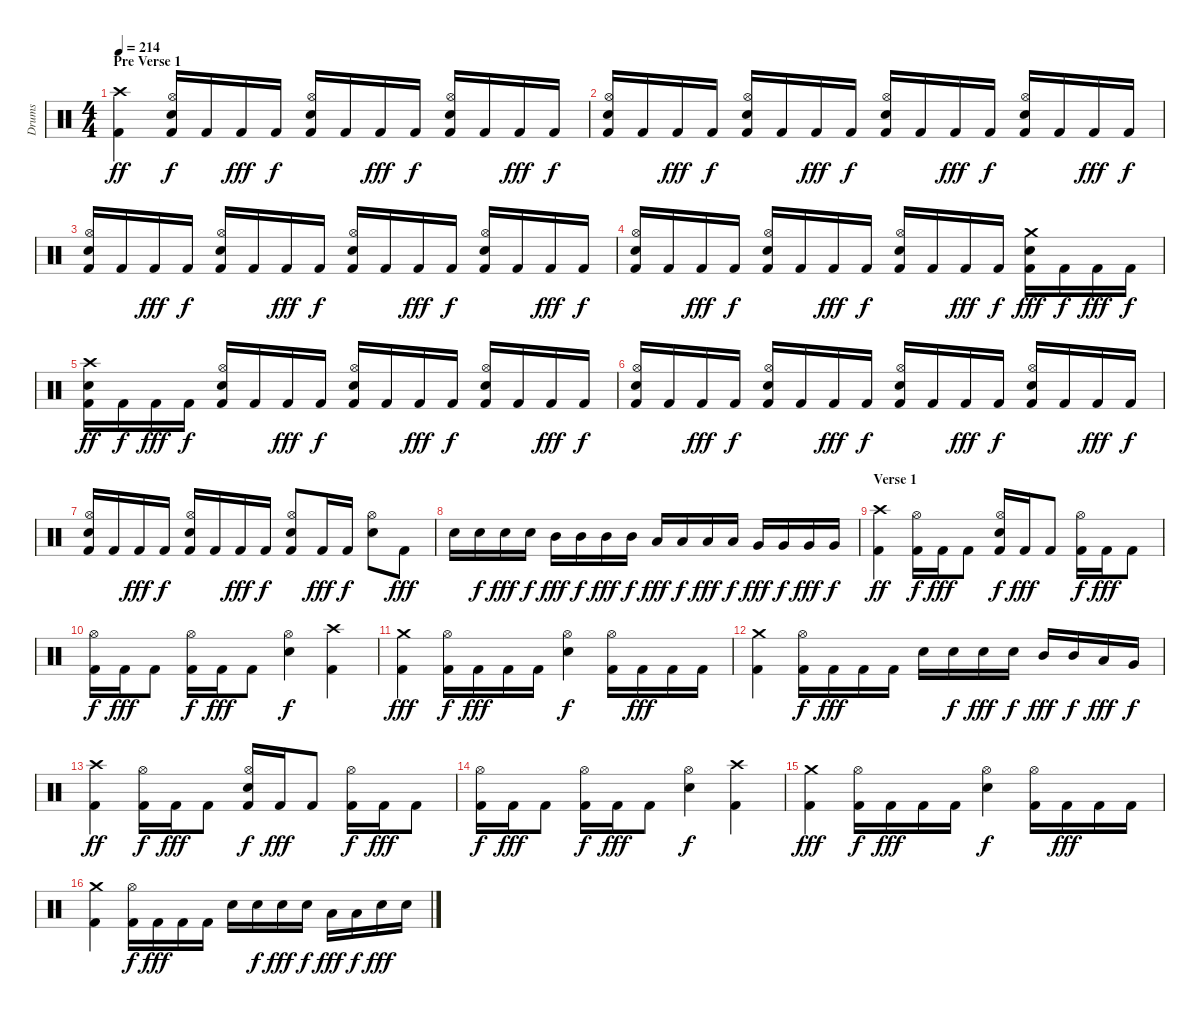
\track ("Drums" "Drums") {instrument percussion}
\staff {score}
\articulation defaults
\ts (4 4)
\section ("" "Pre Verse 1")
\tempo 214
\clef neutral
\ks c
("Crash high (hit)" "Kick (hit) 2").4{dy ff} ("Hi-Hat (open)" "Snare (hit) 2" "Kick (hit) 2").16{dy f} "Kick (hit) 2".16 "Kick (hit) 2".16{dy fff} "Kick (hit) 2".16{dy f} ("Hi-Hat (open)" "Snare (hit) 2" "Kick (hit) 2").16 "Kick (hit) 2".16 "Kick (hit) 2".16{dy fff} "Kick (hit) 2".16{dy f} ("Hi-Hat (open)" "Snare (hit) 2" "Kick (hit) 2").16 "Kick (hit) 2".16 "Kick (hit) 2".16{dy fff} "Kick (hit) 2".16{dy f} |
("Hi-Hat (open)" "Snare (hit) 2" "Kick (hit) 2").16 "Kick (hit) 2".16 "Kick (hit) 2".16{dy fff} "Kick (hit) 2".16{dy f} ("Hi-Hat (open)" "Snare (hit) 2" "Kick (hit) 2").16 "Kick (hit) 2".16 "Kick (hit) 2".16{dy fff} "Kick (hit) 2".16{dy f} ("Hi-Hat (open)" "Snare (hit) 2" "Kick (hit) 2").16 "Kick (hit) 2".16 "Kick (hit) 2".16{dy fff} "Kick (hit) 2".16{dy f} ("Hi-Hat (open)" "Snare (hit) 2" "Kick (hit) 2").16 "Kick (hit) 2".16 "Kick (hit) 2".16{dy fff} "Kick (hit) 2".16{dy f} |
("Hi-Hat (open)" "Snare (hit) 2" "Kick (hit) 2").16 "Kick (hit) 2".16 "Kick (hit) 2".16{dy fff} "Kick (hit) 2".16{dy f} ("Hi-Hat (open)" "Snare (hit) 2" "Kick (hit) 2").16 "Kick (hit) 2".16 "Kick (hit) 2".16{dy fff} "Kick (hit) 2".16{dy f} ("Hi-Hat (open)" "Snare (hit) 2" "Kick (hit) 2").16 "Kick (hit) 2".16 "Kick (hit) 2".16{dy fff} "Kick (hit) 2".16{dy f} ("Hi-Hat (open)" "Snare (hit) 2" "Kick (hit) 2").16 "Kick (hit) 2".16 "Kick (hit) 2".16{dy fff} "Kick (hit) 2".16{dy f} |
("Hi-Hat (open)" "Snare (hit) 2" "Kick (hit) 2").16 "Kick (hit) 2".16 "Kick (hit) 2".16{dy fff} "Kick (hit) 2".16{dy f} ("Hi-Hat (open)" "Snare (hit) 2" "Kick (hit) 2").16 "Kick (hit) 2".16 "Kick (hit) 2".16{dy fff} "Kick (hit) 2".16{dy f} ("Hi-Hat (open)" "Snare (hit) 2" "Kick (hit) 2").16 "Kick (hit) 2".16 "Kick (hit) 2".16{dy fff} "Kick (hit) 2".16{dy f} ("Crash medium (hit)" "Snare (hit) 2" "Kick (hit) 2").16{dy fff} "Kick (hit) 2".16{dy f} "Kick (hit) 2".16{dy fff} "Kick (hit) 2".16{dy f} |
("Crash high (hit)" "Snare (hit) 2" "Kick (hit) 2").16{dy ff} "Kick (hit) 2".16{dy f} "Kick (hit) 2".16{dy fff} "Kick (hit) 2".16{dy f} ("Hi-Hat (open)" "Snare (hit) 2" "Kick (hit) 2").16 "Kick (hit) 2".16 "Kick (hit) 2".16{dy fff} "Kick (hit) 2".16{dy f} ("Hi-Hat (open)" "Snare (hit) 2" "Kick (hit) 2").16 "Kick (hit) 2".16 "Kick (hit) 2".16{dy fff} "Kick (hit) 2".16{dy f} ("Hi-Hat (open)" "Snare (hit) 2" "Kick (hit) 2").16 "Kick (hit) 2".16 "Kick (hit) 2".16{dy fff} "Kick (hit) 2".16{dy f} |
("Hi-Hat (open)" "Snare (hit) 2" "Kick (hit) 2").16 "Kick (hit) 2".16 "Kick (hit) 2".16{dy fff} "Kick (hit) 2".16{dy f} ("Hi-Hat (open)" "Snare (hit) 2" "Kick (hit) 2").16 "Kick (hit) 2".16 "Kick (hit) 2".16{dy fff} "Kick (hit) 2".16{dy f} ("Hi-Hat (open)" "Snare (hit) 2" "Kick (hit) 2").16 "Kick (hit) 2".16 "Kick (hit) 2".16{dy fff} "Kick (hit) 2".16{dy f} ("Hi-Hat (open)" "Snare (hit) 2" "Kick (hit) 2").16 "Kick (hit) 2".16 "Kick (hit) 2".16{dy fff} "Kick (hit) 2".16{dy f} |
("Hi-Hat (open)" "Snare (hit) 2" "Kick (hit) 2").16 "Kick (hit) 2".16 "Kick (hit) 2".16{dy fff} "Kick (hit) 2".16{dy f} ("Hi-Hat (open)" "Snare (hit) 2" "Kick (hit) 2").16 "Kick (hit) 2".16 "Kick (hit) 2".16{dy fff} "Kick (hit) 2".16{dy f} ("Hi-Hat (open)" "Snare (hit) 2" "Kick (hit) 2").8 "Kick (hit) 2".16{dy fff} "Kick (hit) 2".16{dy f} ("Hi-Hat (open)" "Snare (hit) 2").8 "Kick (hit) 2".8{dy fff} |
"Snare (hit) 2".16 "Snare (hit) 2".16{dy f} "Snare (hit) 2".16{dy fff} "Snare (hit) 2".16{dy f} "Mid Tom (hit)".16{dy fff} "Mid Tom (hit)".16{dy f} "Mid Tom (hit)".16{dy fff} "Mid Tom (hit)".16{dy f} "Low Tom (hit)".16{dy fff} "Low Tom (hit)".16{dy f} "Low Tom (hit)".16{dy fff} "Low Tom (hit)".16{dy f} "Very Low Tom (hit)".16{dy fff} "Very Low Tom (hit)".16{dy f} "Very Low Tom (hit)".16{dy fff} "Very Low Tom (hit)".16{dy f} |
\section ("" "Verse 1")
("Crash high (hit)" "Kick (hit) 2").4{dy ff} ("Hi-Hat (open)" "Kick (hit) 2").16{dy f} "Kick (hit) 2".16{dy fff} "Kick (hit) 2".8 ("Hi-Hat (open)" "Snare (hit) 2" "Kick (hit) 2").16{dy f} "Kick (hit) 2".16{dy fff} "Kick (hit) 2".8 ("Hi-Hat (open)" "Kick (hit) 2").16{dy f} "Kick (hit) 2".16{dy fff} "Kick (hit) 2".8 |
("Hi-Hat (open)" "Kick (hit) 2").16{dy f} "Kick (hit) 2".16{dy fff} "Kick (hit) 2".8 ("Hi-Hat (open)" "Kick (hit) 2").16{dy f} "Kick (hit) 2".16{dy fff} "Kick (hit) 2".8 ("Hi-Hat (open)" "Snare (hit) 2").4{dy f} ("Crash high (hit)" "Kick (hit) 2").4 |
("Crash medium (hit)" "Kick (hit) 2").4{dy fff} ("Hi-Hat (open)" "Kick (hit) 2").16{dy f} "Kick (hit) 2".16{dy fff} "Kick (hit) 2".16 "Kick (hit) 2".16 ("Hi-Hat (open)" "Snare (hit) 2").4{dy f} ("Hi-Hat (open)" "Kick (hit) 2").16 "Kick (hit) 2".16{dy fff} "Kick (hit) 2".16 "Kick (hit) 2".16 |
("Crash medium (hit)" "Kick (hit) 2").4 ("Hi-Hat (open)" "Kick (hit) 2").16{dy f} "Kick (hit) 2".16{dy fff} "Kick (hit) 2".16 "Kick (hit) 2".16 "Snare (hit) 2".16 "Snare (hit) 2".16{dy f} "Snare (hit) 2".16{dy fff} "Snare (hit) 2".16{dy f} "Mid Tom (hit)".16{dy fff} "Mid Tom (hit)".16{dy f} "Low Tom (hit)".16{dy fff} "Very Low Tom (hit)".16{dy f} |
("Crash high (hit)" "Kick (hit) 2").4{dy ff} ("Hi-Hat (open)" "Kick (hit) 2").16{dy f} "Kick (hit) 2".16{dy fff} "Kick (hit) 2".8 ("Hi-Hat (open)" "Snare (hit) 2" "Kick (hit) 2").16{dy f} "Kick (hit) 2".16{dy fff} "Kick (hit) 2".8 ("Hi-Hat (open)" "Kick (hit) 2").16{dy f} "Kick (hit) 2".16{dy fff} "Kick (hit) 2".8 |
("Hi-Hat (open)" "Kick (hit) 2").16{dy f} "Kick (hit) 2".16{dy fff} "Kick (hit) 2".8 ("Hi-Hat (open)" "Kick (hit) 2").16{dy f} "Kick (hit) 2".16{dy fff} "Kick (hit) 2".8 ("Hi-Hat (open)" "Snare (hit) 2").4{dy f} ("Crash high (hit)" "Kick (hit) 2").4 |
("Crash medium (hit)" "Kick (hit) 2").4{dy fff} ("Hi-Hat (open)" "Kick (hit) 2").16{dy f} "Kick (hit) 2".16{dy fff} "Kick (hit) 2".16 "Kick (hit) 2".16 ("Hi-Hat (open)" "Snare (hit) 2").4{dy f} ("Hi-Hat (open)" "Kick (hit) 2").16 "Kick (hit) 2".16{dy fff} "Kick (hit) 2".16 "Kick (hit) 2".16 |
("Crash medium (hit)" "Kick (hit) 2").4 ("Hi-Hat (open)" "Kick (hit) 2").16{dy f} "Kick (hit) 2".16{dy fff} "Kick (hit) 2".16 "Kick (hit) 2".16 "Snare (hit) 2".16 "Snare (hit) 2".16{dy f} "Snare (hit) 2".16{dy fff} "Snare (hit) 2".16{dy f} "Low Tom (hit)".16{dy fff} "Low Tom (hit)".16{dy f} "Snare (hit) 2".16{dy fff} "Snare (hit) 2".16
